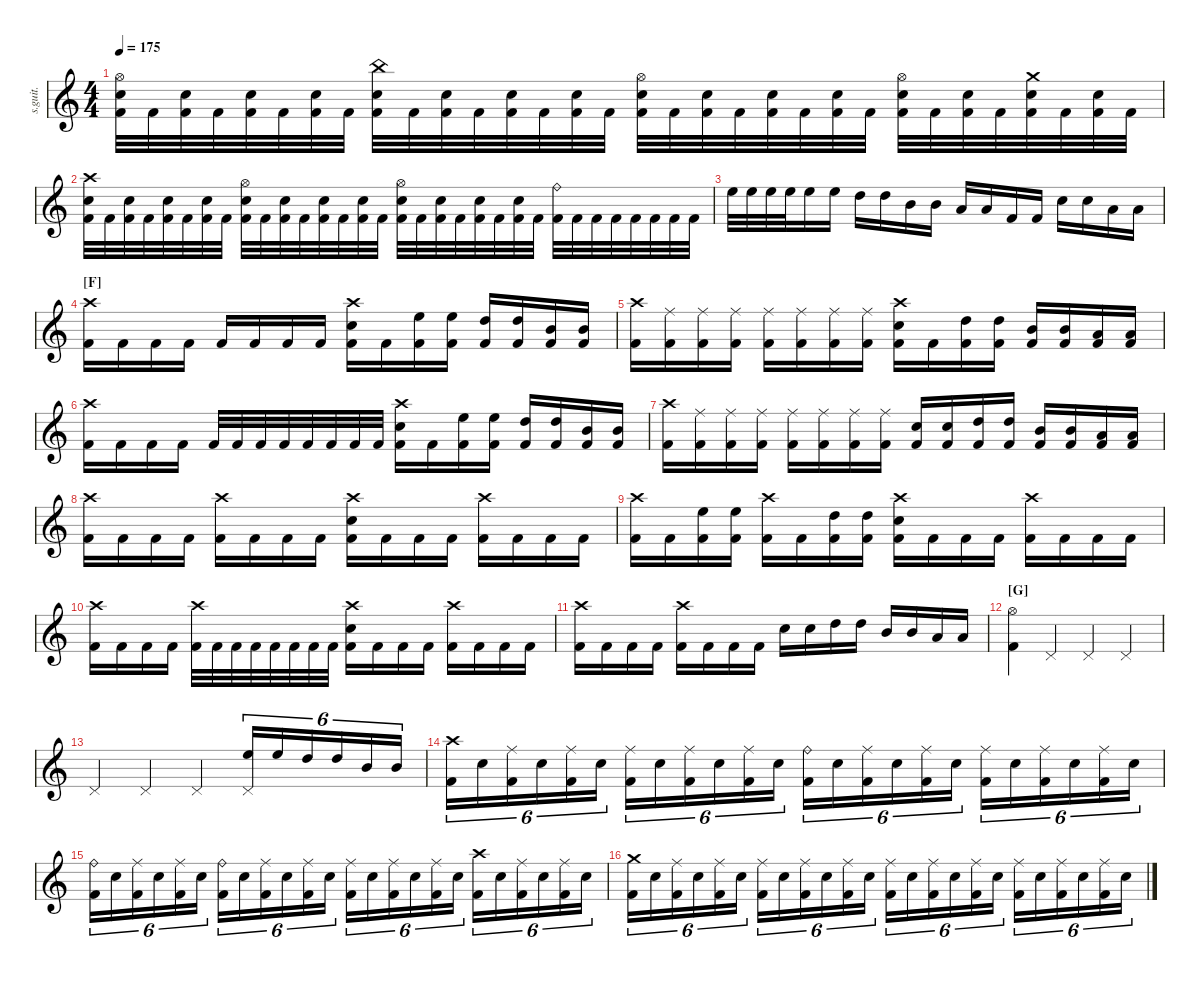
\defaultSystemsLayout 4
\hideDynamics
\bracketExtendMode nobrackets
\track ("" "s.guit.") {instrument percussion}
\staff {score}
\articulation defaults
\ts (4 4)
\tempo 175
\clef g2
\ks c
("Hi-Hat (open)" "Snare (hit) 2" "Kick (hit) 2").32{dy ff} "Kick (hit) 2".32 ("Snare (hit) 2" "Kick (hit) 2").32 "Kick (hit) 2".32 ("Snare (hit) 2" "Kick (hit) 2").32 "Kick (hit) 2".32 ("Snare (hit) 2" "Kick (hit) 2").32 "Kick (hit) 2".32 ("China (hit)" "Snare (hit) 2" "Kick (hit) 2").32 "Kick (hit) 2".32 ("Snare (hit) 2" "Kick (hit) 2").32 "Kick (hit) 2".32 ("Snare (hit) 2" "Kick (hit) 2").32 "Kick (hit) 2".32 ("Snare (hit) 2" "Kick (hit) 2").32 "Kick (hit) 2".32 ("Hi-Hat (open)" "Snare (hit) 2" "Kick (hit) 2").32 "Kick (hit) 2".32 ("Snare (hit) 2" "Kick (hit) 2").32 "Kick (hit) 2".32 ("Snare (hit) 2" "Kick (hit) 2").32 "Kick (hit) 2".32 ("Snare (hit) 2" "Kick (hit) 2").32 "Kick (hit) 2".32 ("Hi-Hat (open)" "Snare (hit) 2" "Kick (hit) 2").32 "Kick (hit) 2".32 ("Snare (hit) 2" "Kick (hit) 2").32 "Kick (hit) 2".32 ("Crash medium (hit)" "Snare (hit) 2" "Kick (hit) 2").32 "Kick (hit) 2".32 ("Snare (hit) 2" "Kick (hit) 2").32 "Kick (hit) 2".32 |
("Crash high (hit)" "Snare (hit) 2" "Kick (hit) 2").32 "Kick (hit) 2".32 ("Snare (hit) 2" "Kick (hit) 2").32 "Kick (hit) 2".32 ("Snare (hit) 2" "Kick (hit) 2").32 "Kick (hit) 2".32 ("Snare (hit) 2" "Kick (hit) 2").32 "Kick (hit) 2".32 ("Hi-Hat (open)" "Snare (hit) 2" "Kick (hit) 2").32 "Kick (hit) 2".32 ("Snare (hit) 2" "Kick (hit) 2").32 "Kick (hit) 2".32 ("Snare (hit) 2" "Kick (hit) 2").32 "Kick (hit) 2".32 ("Snare (hit) 2" "Kick (hit) 2").32 "Kick (hit) 2".32 ("Hi-Hat (open)" "Snare (hit) 2" "Kick (hit) 2").32 "Kick (hit) 2".32 ("Snare (hit) 2" "Kick (hit) 2").32 "Kick (hit) 2".32 ("Snare (hit) 2" "Kick (hit) 2").32 "Kick (hit) 2".32 ("Snare (hit) 2" "Kick (hit) 2").32 "Kick (hit) 2".32 ("Ride (bell)" "Kick (hit) 2").32 "Kick (hit) 2".32 "Kick (hit) 2".32 "Kick (hit) 2".32 "Kick (hit) 2".32 "Kick (hit) 2".32 "Kick (hit) 2".32 "Kick (hit) 2".32 |
"High Floor Tom (hit)".32 "High Floor Tom (hit)".32 "High Floor Tom (hit)".32 "High Floor Tom (hit)".32 "High Floor Tom (hit)".16 "High Floor Tom (hit)".16 "High Tom (hit)".16 "High Tom (hit)".16 "Mid Tom (hit)".16 "Mid Tom (hit)".16 "Low Tom (hit)".16 "Low Tom (hit)".16 "Kick (hit) 2".16 "Kick (hit) 2".16 "Snare (hit) 2".16 "Snare (hit) 2".16 "Low Tom (hit)".16 "Low Tom (hit)".16 |
\section ("F" "")
("Crash high (hit)" "Kick (hit) 2").16 "Kick (hit) 2".16 "Kick (hit) 2".16 "Kick (hit) 2".16 "Kick (hit) 2".16 "Kick (hit) 2".16 "Kick (hit) 2".16 "Kick (hit) 2".16 ("Crash high (hit)" "Snare (hit) 2" "Kick (hit) 2").16 "Kick (hit) 2".16 ("High Floor Tom (hit)" "Kick (hit) 2").16 ("High Floor Tom (hit)" "Kick (hit) 2").16 ("High Tom (hit)" "Kick (hit) 2").16 ("High Tom (hit)" "Kick (hit) 2").16 ("Mid Tom (hit)" "Kick (hit) 2").16 ("Mid Tom (hit)" "Kick (hit) 2").16 |
("Crash high (hit)" "Kick (hit) 2").16 ("Ride (middle)" "Kick (hit) 2").16 ("Ride (middle)" "Kick (hit) 2").16 ("Ride (middle)" "Kick (hit) 2").16 ("Ride (middle)" "Kick (hit) 2").16 ("Ride (middle)" "Kick (hit) 2").16 ("Ride (middle)" "Kick (hit) 2").16 ("Ride (middle)" "Kick (hit) 2").16 ("Crash high (hit)" "Snare (hit) 2" "Kick (hit) 2").16 "Kick (hit) 2".16 ("High Tom (hit)" "Kick (hit) 2").16 ("High Tom (hit)" "Kick (hit) 2").16 ("Mid Tom (hit)" "Kick (hit) 2").16 ("Mid Tom (hit)" "Kick (hit) 2").16 ("Low Tom (hit)" "Kick (hit) 2").16 ("Low Tom (hit)" "Kick (hit) 2").16 |
("Crash high (hit)" "Kick (hit) 2").16 "Kick (hit) 2".16 "Kick (hit) 2".16 "Kick (hit) 2".16 "Kick (hit) 2".32 "Kick (hit) 2".32 "Kick (hit) 2".32 "Kick (hit) 2".32 "Kick (hit) 2".32 "Kick (hit) 2".32 "Kick (hit) 2".32 "Kick (hit) 2".32 ("Crash high (hit)" "Snare (hit) 2" "Kick (hit) 2").16 "Kick (hit) 2".16 ("High Floor Tom (hit)" "Kick (hit) 2").16 ("High Floor Tom (hit)" "Kick (hit) 2").16 ("High Tom (hit)" "Kick (hit) 2").16 ("High Tom (hit)" "Kick (hit) 2").16 ("Mid Tom (hit)" "Kick (hit) 2").16 ("Mid Tom (hit)" "Kick (hit) 2").16 |
("Crash high (hit)" "Kick (hit) 2").16 ("Ride (middle)" "Kick (hit) 2").16 ("Ride (middle)" "Kick (hit) 2").16 ("Ride (middle)" "Kick (hit) 2").16 ("Ride (middle)" "Kick (hit) 2").16 ("Ride (middle)" "Kick (hit) 2").16 ("Ride (middle)" "Kick (hit) 2").16 ("Ride (middle)" "Kick (hit) 2").16 ("Snare (hit) 2" "Kick (hit) 2").16 ("Snare (hit) 2" "Kick (hit) 2").16 ("High Tom (hit)" "Kick (hit) 2").16 ("High Tom (hit)" "Kick (hit) 2").16 ("Mid Tom (hit)" "Kick (hit) 2").16 ("Mid Tom (hit)" "Kick (hit) 2").16 ("Low Tom (hit)" "Kick (hit) 2").16 ("Low Tom (hit)" "Kick (hit) 2").16 |
("Crash high (hit)" "Kick (hit) 2").16 "Kick (hit) 2".16 "Kick (hit) 2".16 "Kick (hit) 2".16 ("Crash high (hit)" "Kick (hit) 2").16 "Kick (hit) 2".16 "Kick (hit) 2".16 "Kick (hit) 2".16 ("Crash high (hit)" "Snare (hit) 2" "Kick (hit) 2").16 "Kick (hit) 2".16 "Kick (hit) 2".16 "Kick (hit) 2".16 ("Crash high (hit)" "Kick (hit) 2").16 "Kick (hit) 2".16 "Kick (hit) 2".16 "Kick (hit) 2".16 |
("Crash high (hit)" "Kick (hit) 2").16 "Kick (hit) 2".16 ("High Floor Tom (hit)" "Kick (hit) 2").16 ("High Floor Tom (hit)" "Kick (hit) 2").16 ("Crash high (hit)" "Kick (hit) 2").16 "Kick (hit) 2".16 ("High Tom (hit)" "Kick (hit) 2").16 ("High Tom (hit)" "Kick (hit) 2").16 ("Crash high (hit)" "Snare (hit) 2" "Kick (hit) 2").16 "Kick (hit) 2".16 "Kick (hit) 2".16 "Kick (hit) 2".16 ("Crash high (hit)" "Kick (hit) 2").16 "Kick (hit) 2".16 "Kick (hit) 2".16 "Kick (hit) 2".16 |
("Crash high (hit)" "Kick (hit) 2").16 "Kick (hit) 2".16 "Kick (hit) 2".16 "Kick (hit) 2".16 ("Crash high (hit)" "Kick (hit) 2").32 "Kick (hit) 2".32 "Kick (hit) 2".32 "Kick (hit) 2".32 "Kick (hit) 2".32 "Kick (hit) 2".32 "Kick (hit) 2".32 "Kick (hit) 2".32 ("Crash high (hit)" "Snare (hit) 2" "Kick (hit) 2").16 "Kick (hit) 2".16 "Kick (hit) 2".16 "Kick (hit) 2".16 ("Crash high (hit)" "Kick (hit) 2").16 "Kick (hit) 2".16 "Kick (hit) 2".16 "Kick (hit) 2".16 |
("Crash high (hit)" "Kick (hit) 2").16 "Kick (hit) 2".16 "Kick (hit) 2".16 "Kick (hit) 2".16 ("Crash high (hit)" "Kick (hit) 2").16 "Kick (hit) 2".16 "Kick (hit) 2".16 "Kick (hit) 2".16 "Snare (hit) 2".16 "Snare (hit) 2".16 "High Tom (hit)".16 "High Tom (hit)".16 "Mid Tom (hit)".16 "Mid Tom (hit)".16 "Low Tom (hit)".16 "Low Tom (hit)".16 |
\section ("G" "")
("Hi-Hat (open)" "Kick (hit) 2").4 "Pedal Hi-Hat (hit)".4 "Pedal Hi-Hat (hit)".4 "Pedal Hi-Hat (hit)".4 |
"Pedal Hi-Hat (hit)".4 "Pedal Hi-Hat (hit)".4 "Pedal Hi-Hat (hit)".4 ("High Floor Tom (hit)" "Pedal Hi-Hat (hit)").16{tu (6 4)} "High Floor Tom (hit)".16{tu (6 4)} "High Tom (hit)".16{tu (6 4)} "High Tom (hit)".16{tu (6 4)} "Mid Tom (hit)".16{tu (6 4)} "Mid Tom (hit)".16{tu (6 4)} |
("Crash high (hit)" "Kick (hit) 2").16{tu (6 4)} "Snare (hit) 2".16{tu (6 4)} ("Ride (middle)" "Kick (hit) 2").16{tu (6 4)} "Snare (hit) 2".16{tu (6 4)} ("Ride (middle)" "Kick (hit) 2").16{tu (6 4)} "Snare (hit) 2".16{tu (6 4)} ("Ride (middle)" "Kick (hit) 2").16{tu (6 4)} "Snare (hit) 2".16{tu (6 4)} ("Ride (middle)" "Kick (hit) 2").16{tu (6 4)} "Snare (hit) 2".16{tu (6 4)} ("Ride (middle)" "Kick (hit) 2").16{tu (6 4)} "Snare (hit) 2".16{tu (6 4)} ("Ride (bell)" "Kick (hit) 2").16{tu (6 4)} "Snare (hit) 2".16{tu (6 4)} ("Ride (middle)" "Kick (hit) 2").16{tu (6 4)} "Snare (hit) 2".16{tu (6 4)} ("Ride (middle)" "Kick (hit) 2").16{tu (6 4)} "Snare (hit) 2".16{tu (6 4)} ("Ride (middle)" "Kick (hit) 2").16{tu (6 4)} "Snare (hit) 2".16{tu (6 4)} ("Ride (middle)" "Kick (hit) 2").16{tu (6 4)} "Snare (hit) 2".16{tu (6 4)} ("Ride (middle)" "Kick (hit) 2").16{tu (6 4)} "Snare (hit) 2".16{tu (6 4)} |
("Ride (bell)" "Kick (hit) 2").16{tu (6 4)} "Snare (hit) 2".16{tu (6 4)} ("Ride (middle)" "Kick (hit) 2").16{tu (6 4)} "Snare (hit) 2".16{tu (6 4)} ("Ride (middle)" "Kick (hit) 2").16{tu (6 4)} "Snare (hit) 2".16{tu (6 4)} ("Ride (bell)" "Kick (hit) 2").16{tu (6 4)} "Snare (hit) 2".16{tu (6 4)} ("Ride (middle)" "Kick (hit) 2").16{tu (6 4)} "Snare (hit) 2".16{tu (6 4)} ("Ride (middle)" "Kick (hit) 2").16{tu (6 4)} "Snare (hit) 2".16{tu (6 4)} ("Ride (middle)" "Kick (hit) 2").16{tu (6 4)} "Snare (hit) 2".16{tu (6 4)} ("Ride (middle)" "Kick (hit) 2").16{tu (6 4)} "Snare (hit) 2".16{tu (6 4)} ("Ride (middle)" "Kick (hit) 2").16{tu (6 4)} "Snare (hit) 2".16{tu (6 4)} ("Crash high (hit)" "Kick (hit) 2").16{tu (6 4)} "Snare (hit) 2".16{tu (6 4)} ("Ride (middle)" "Kick (hit) 2").16{tu (6 4)} "Snare (hit) 2".16{tu (6 4)} ("Ride (middle)" "Kick (hit) 2").16{tu (6 4)} "Snare (hit) 2".16{tu (6 4)} |
("Crash medium (hit)" "Kick (hit) 2").16{tu (6 4)} "Snare (hit) 2".16{tu (6 4)} ("Ride (middle)" "Kick (hit) 2").16{tu (6 4)} "Snare (hit) 2".16{tu (6 4)} ("Ride (middle)" "Kick (hit) 2").16{tu (6 4)} "Snare (hit) 2".16{tu (6 4)} ("Ride (middle)" "Kick (hit) 2").16{tu (6 4)} "Snare (hit) 2".16{tu (6 4)} ("Ride (middle)" "Kick (hit) 2").16{tu (6 4)} "Snare (hit) 2".16{tu (6 4)} ("Ride (middle)" "Kick (hit) 2").16{tu (6 4)} "Snare (hit) 2".16{tu (6 4)} ("Ride (middle)" "Kick (hit) 2").16{tu (6 4)} "Snare (hit) 2".16{tu (6 4)} ("Ride (middle)" "Kick (hit) 2").16{tu (6 4)} "Snare (hit) 2".16{tu (6 4)} ("Ride (middle)" "Kick (hit) 2").16{tu (6 4)} "Snare (hit) 2".16{tu (6 4)} ("Ride (middle)" "Kick (hit) 2").16{tu (6 4)} "Snare (hit) 2".16{tu (6 4)} ("Ride (middle)" "Kick (hit) 2").16{tu (6 4)} "Snare (hit) 2".16{tu (6 4)} ("Ride (middle)" "Kick (hit) 2").16{tu (6 4)} "Snare (hit) 2".16{tu (6 4)}
